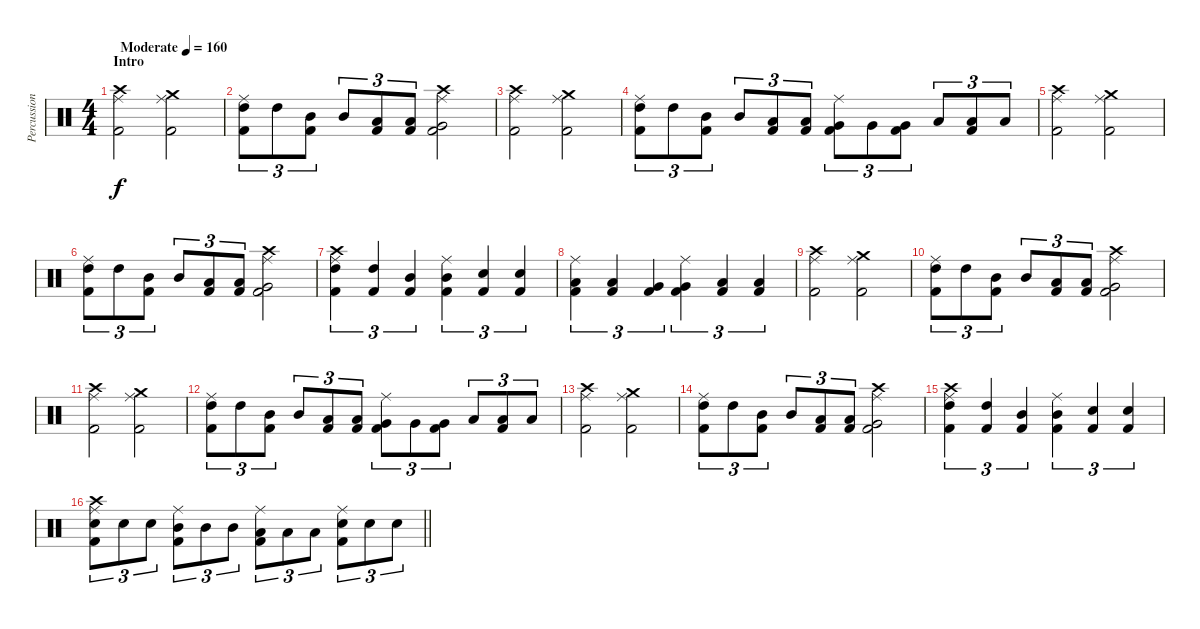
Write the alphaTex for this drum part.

\track ("Percussion" "Percussion") {instrument percussion}
\staff {score}
\articulation defaults
\ts (4 4)
\section ("" "Intro")
\tempo (160 "Moderate")
\clef neutral
\ks c
("Crash high (hit)" "Ride (middle)" "Kick (hit) 2").2{dy f} ("Crash medium (hit)" "Ride (middle)" "Kick (hit) 2").2 |
("Ride (middle)" "High Tom (hit)" "Kick (hit) 2").8{tu (3 2)} "High Tom (hit)".8{tu (3 2)} ("Mid Tom (hit)" "Kick (hit) 2").8{tu (3 2)} "Mid Tom (hit)".8{tu (3 2)} ("Low Tom (hit)" "Kick (hit) 2").8{tu (3 2)} ("Low Tom (hit)" "Kick (hit) 2").8{tu (3 2)} ("Crash high (hit)" "Ride (middle)" "Very Low Tom (hit)" "Kick (hit) 2").2 |
("Crash high (hit)" "Ride (middle)" "Kick (hit) 2").2 ("Crash medium (hit)" "Ride (middle)" "Kick (hit) 2").2 |
("Ride (middle)" "High Tom (hit)" "Kick (hit) 2").8{tu (3 2)} "High Tom (hit)".8{tu (3 2)} ("Mid Tom (hit)" "Kick (hit) 2").8{tu (3 2)} "Mid Tom (hit)".8{tu (3 2)} ("Low Tom (hit)" "Kick (hit) 2").8{tu (3 2)} ("Low Tom (hit)" "Kick (hit) 2").8{tu (3 2)} ("Ride (middle)" "Very Low Tom (hit)" "Kick (hit) 2").8{tu (3 2)} "Very Low Tom (hit)".8{tu (3 2)} ("Very Low Tom (hit)" "Kick (hit) 2").8{tu (3 2)} "Low Floor Tom (hit)".8{tu (3 2)} ("Low Floor Tom (hit)" "Kick (hit) 2").8{tu (3 2)} "Low Floor Tom (hit)".8{tu (3 2)} |
("Crash high (hit)" "Ride (middle)" "Kick (hit) 2").2 ("Crash medium (hit)" "Ride (middle)" "Kick (hit) 2").2 |
("Ride (middle)" "High Tom (hit)" "Kick (hit) 2").8{tu (3 2)} "High Tom (hit)".8{tu (3 2)} ("Mid Tom (hit)" "Kick (hit) 2").8{tu (3 2)} "Mid Tom (hit)".8{tu (3 2)} ("Low Tom (hit)" "Kick (hit) 2").8{tu (3 2)} ("Low Tom (hit)" "Kick (hit) 2").8{tu (3 2)} ("Crash high (hit)" "Ride (middle)" "Very Low Tom (hit)" "Kick (hit) 2").2 |
("Crash high (hit)" "Ride (middle)" "High Tom (hit)" "Kick (hit) 2").4{tu (3 2)} ("High Tom (hit)" "Kick (hit) 2").4{tu (3 2)} ("Mid Tom (hit)" "Kick (hit) 2").4{tu (3 2)} ("Ride (middle)" "Mid Tom (hit)" "Kick (hit) 2").4{tu (3 2)} ("Snare (hit) 2" "Kick (hit) 2").4{tu (3 2)} ("Snare (hit) 2" "Kick (hit) 2").4{tu (3 2)} |
("Ride (middle)" "Low Tom (hit)" "Kick (hit) 2").4{tu (3 2)} ("Low Tom (hit)" "Kick (hit) 2").4{tu (3 2)} ("Very Low Tom (hit)" "Kick (hit) 2").4{tu (3 2)} ("Ride (middle)" "Very Low Tom (hit)" "Kick (hit) 2").4{tu (3 2)} ("Low Floor Tom (hit)" "Kick (hit) 2").4{tu (3 2)} ("Low Floor Tom (hit)" "Kick (hit) 2").4{tu (3 2)} |
("Crash high (hit)" "Ride (middle)" "Kick (hit) 2").2 ("Crash medium (hit)" "Ride (middle)" "Kick (hit) 2").2 |
("Ride (middle)" "High Tom (hit)" "Kick (hit) 2").8{tu (3 2)} "High Tom (hit)".8{tu (3 2)} ("Mid Tom (hit)" "Kick (hit) 2").8{tu (3 2)} "Mid Tom (hit)".8{tu (3 2)} ("Low Tom (hit)" "Kick (hit) 2").8{tu (3 2)} ("Low Tom (hit)" "Kick (hit) 2").8{tu (3 2)} ("Crash high (hit)" "Ride (middle)" "Very Low Tom (hit)" "Kick (hit) 2").2 |
("Crash high (hit)" "Ride (middle)" "Kick (hit) 2").2 ("Crash medium (hit)" "Ride (middle)" "Kick (hit) 2").2 |
("Ride (middle)" "High Tom (hit)" "Kick (hit) 2").8{tu (3 2)} "High Tom (hit)".8{tu (3 2)} ("Mid Tom (hit)" "Kick (hit) 2").8{tu (3 2)} "Mid Tom (hit)".8{tu (3 2)} ("Low Tom (hit)" "Kick (hit) 2").8{tu (3 2)} ("Low Tom (hit)" "Kick (hit) 2").8{tu (3 2)} ("Ride (middle)" "Very Low Tom (hit)" "Kick (hit) 2").8{tu (3 2)} "Very Low Tom (hit)".8{tu (3 2)} ("Very Low Tom (hit)" "Kick (hit) 2").8{tu (3 2)} "Low Floor Tom (hit)".8{tu (3 2)} ("Low Floor Tom (hit)" "Kick (hit) 2").8{tu (3 2)} "Low Floor Tom (hit)".8{tu (3 2)} |
("Crash high (hit)" "Ride (middle)" "Kick (hit) 2").2 ("Crash medium (hit)" "Ride (middle)" "Kick (hit) 2").2 |
("Ride (middle)" "High Tom (hit)" "Kick (hit) 2").8{tu (3 2)} "High Tom (hit)".8{tu (3 2)} ("Mid Tom (hit)" "Kick (hit) 2").8{tu (3 2)} "Mid Tom (hit)".8{tu (3 2)} ("Low Tom (hit)" "Kick (hit) 2").8{tu (3 2)} ("Low Tom (hit)" "Kick (hit) 2").8{tu (3 2)} ("Crash high (hit)" "Ride (middle)" "Very Low Tom (hit)" "Kick (hit) 2").2 |
("Crash high (hit)" "Ride (middle)" "High Tom (hit)" "Kick (hit) 2").4{tu (3 2)} ("High Tom (hit)" "Kick (hit) 2").4{tu (3 2)} ("Mid Tom (hit)" "Kick (hit) 2").4{tu (3 2)} ("Ride (middle)" "Mid Tom (hit)" "Kick (hit) 2").4{tu (3 2)} ("Snare (hit) 2" "Kick (hit) 2").4{tu (3 2)} ("Snare (hit) 2" "Kick (hit) 2").4{tu (3 2)} |
\barLineRight lightlight
("Crash high (hit)" "Ride (middle)" "Snare (hit) 2" "Kick (hit) 2").8{tu (3 2)} "Snare (hit) 2".8{tu (3 2)} "Snare (hit) 2".8{tu (3 2)} ("Ride (middle)" "Mid Tom (hit)" "Kick (hit) 2").8{tu (3 2)} "Mid Tom (hit)".8{tu (3 2)} "Mid Tom (hit)".8{tu (3 2)} ("Ride (middle)" "Low Tom (hit)" "Kick (hit) 2").8{tu (3 2)} "Low Tom (hit)".8{tu (3 2)} "Low Tom (hit)".8{tu (3 2)} ("Ride (middle)" "Snare (hit) 2" "Kick (hit) 2").8{tu (3 2)} "Snare (hit) 2".8{tu (3 2)} "Snare (hit) 2".8{tu (3 2)}
